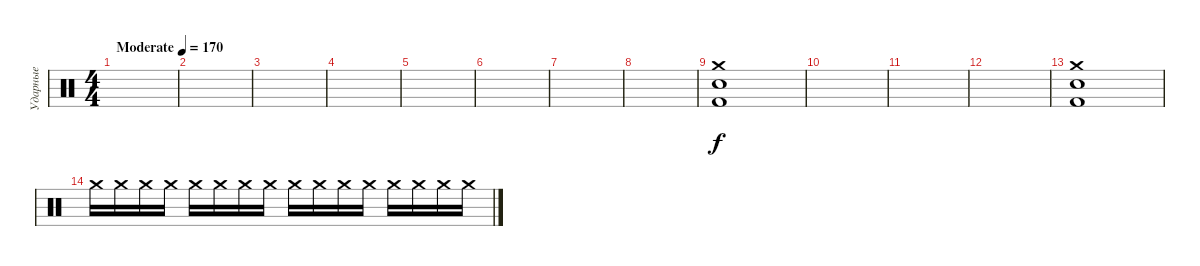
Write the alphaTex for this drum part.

\track ("Ударные" "Ударные") {instrument percussion}
\staff {score}
\articulation defaults
\ts (4 4)
\tempo (170 "Moderate")
\clef neutral
\ks c
|
|
|
|
|
|
|
|
("Crash medium (hit)" "Electric Snare (hit)" "Kick (hit) 2").1 |
|
|
|
("Crash medium (hit)" "Electric Snare (hit)" "Kick (hit) 2").1 |
"Crash medium (hit)".16{volume 9} "Crash medium (hit)".16 "Crash medium (hit)".16 "Crash medium (hit)".16 "Crash medium (hit)".16 "Crash medium (hit)".16 "Crash medium (hit)".16 "Crash medium (hit)".16 "Crash medium (hit)".16 "Crash medium (hit)".16 "Crash medium (hit)".16 "Crash medium (hit)".16 "Crash medium (hit)".16{volume 13} "Crash medium (hit)".16 "Crash medium (hit)".16 "Crash medium (hit)".16{volume 16}
